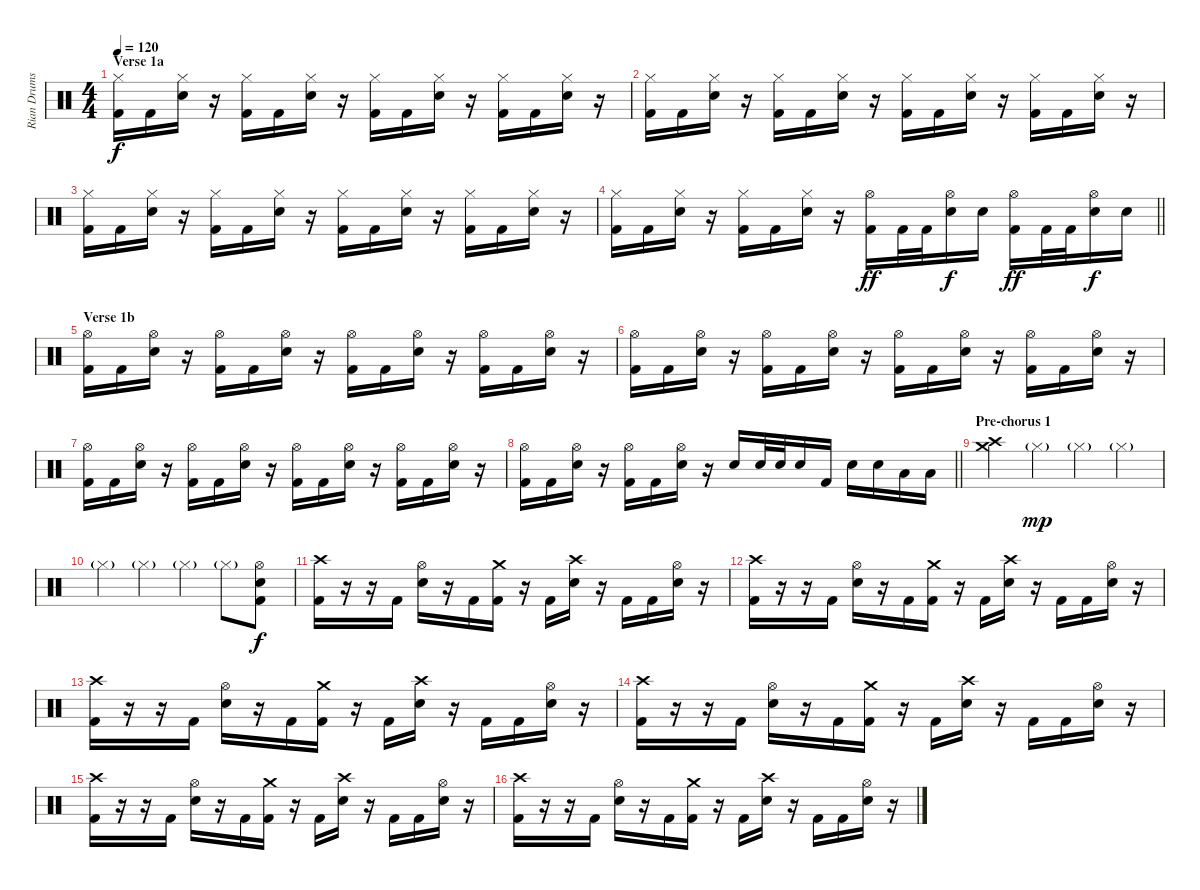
\track ("Rian Drums" "Rian Drums") {instrument percussion}
\staff {score}
\articulation defaults
\ts (4 4)
\section ("" "Verse 1a")
\tempo 120
\clef neutral
\ks c
("Hi-Hat (closed)" "Kick (hit) 2").16{dy f} "Kick (hit) 2".16 ("Hi-Hat (closed)" "Electric Snare (hit)").16 r.16 ("Hi-Hat (closed)" "Kick (hit) 2").16 "Kick (hit) 2".16 ("Hi-Hat (closed)" "Electric Snare (hit)").16 r.16 ("Hi-Hat (closed)" "Kick (hit) 2").16 "Kick (hit) 2".16 ("Hi-Hat (closed)" "Electric Snare (hit)").16 r.16 ("Hi-Hat (closed)" "Kick (hit) 2").16 "Kick (hit) 2".16 ("Hi-Hat (closed)" "Electric Snare (hit)").16 r.16 |
("Hi-Hat (closed)" "Kick (hit) 2").16 "Kick (hit) 2".16 ("Hi-Hat (closed)" "Electric Snare (hit)").16 r.16 ("Hi-Hat (closed)" "Kick (hit) 2").16 "Kick (hit) 2".16 ("Hi-Hat (closed)" "Electric Snare (hit)").16 r.16 ("Hi-Hat (closed)" "Kick (hit) 2").16 "Kick (hit) 2".16 ("Hi-Hat (closed)" "Electric Snare (hit)").16 r.16 ("Hi-Hat (closed)" "Kick (hit) 2").16 "Kick (hit) 2".16 ("Hi-Hat (closed)" "Electric Snare (hit)").16 r.16 |
("Hi-Hat (closed)" "Kick (hit) 2").16 "Kick (hit) 2".16 ("Hi-Hat (closed)" "Electric Snare (hit)").16 r.16 ("Hi-Hat (closed)" "Kick (hit) 2").16 "Kick (hit) 2".16 ("Hi-Hat (closed)" "Electric Snare (hit)").16 r.16 ("Hi-Hat (closed)" "Kick (hit) 2").16 "Kick (hit) 2".16 ("Hi-Hat (closed)" "Electric Snare (hit)").16 r.16 ("Hi-Hat (closed)" "Kick (hit) 2").16 "Kick (hit) 2".16 ("Hi-Hat (closed)" "Electric Snare (hit)").16 r.16 |
\barLineRight lightlight
("Hi-Hat (closed)" "Kick (hit) 2").16 "Kick (hit) 2".16 ("Hi-Hat (closed)" "Electric Snare (hit)").16 r.16 ("Hi-Hat (closed)" "Kick (hit) 2").16 "Kick (hit) 2".16 ("Hi-Hat (closed)" "Electric Snare (hit)").16 r.16 ("Hi-Hat (open)" "Kick (hit) 2").16{dy ff} "Kick (hit) 2".32 "Kick (hit) 2".32 ("Hi-Hat (open)" "Electric Snare (hit)").16{dy f} "Electric Snare (hit)".16 ("Hi-Hat (open)" "Kick (hit) 2").16{dy ff} "Kick (hit) 2".32 "Kick (hit) 2".32 ("Hi-Hat (open)" "Electric Snare (hit)").16{dy f} "Electric Snare (hit)".16 |
\section ("" "Verse 1b")
("Hi-Hat (open)" "Kick (hit) 2").16 "Kick (hit) 2".16 ("Hi-Hat (open)" "Electric Snare (hit)").16 r.16 ("Hi-Hat (open)" "Kick (hit) 2").16 "Kick (hit) 2".16 ("Hi-Hat (open)" "Electric Snare (hit)").16 r.16 ("Hi-Hat (open)" "Kick (hit) 2").16 "Kick (hit) 2".16 ("Hi-Hat (open)" "Electric Snare (hit)").16 r.16 ("Hi-Hat (open)" "Kick (hit) 2").16 "Kick (hit) 2".16 ("Hi-Hat (open)" "Electric Snare (hit)").16 r.16 |
("Hi-Hat (open)" "Kick (hit) 2").16 "Kick (hit) 2".16 ("Hi-Hat (open)" "Electric Snare (hit)").16 r.16 ("Hi-Hat (open)" "Kick (hit) 2").16 "Kick (hit) 2".16 ("Hi-Hat (open)" "Electric Snare (hit)").16 r.16 ("Hi-Hat (open)" "Kick (hit) 2").16 "Kick (hit) 2".16 ("Hi-Hat (open)" "Electric Snare (hit)").16 r.16 ("Hi-Hat (open)" "Kick (hit) 2").16 "Kick (hit) 2".16 ("Hi-Hat (open)" "Electric Snare (hit)").16 r.16 |
("Hi-Hat (open)" "Kick (hit) 2").16 "Kick (hit) 2".16 ("Hi-Hat (open)" "Electric Snare (hit)").16 r.16 ("Hi-Hat (open)" "Kick (hit) 2").16 "Kick (hit) 2".16 ("Hi-Hat (open)" "Electric Snare (hit)").16 r.16 ("Hi-Hat (open)" "Kick (hit) 2").16 "Kick (hit) 2".16 ("Hi-Hat (open)" "Electric Snare (hit)").16 r.16 ("Hi-Hat (open)" "Kick (hit) 2").16 "Kick (hit) 2".16 ("Hi-Hat (open)" "Electric Snare (hit)").16 r.16 |
\barLineRight lightlight
("Hi-Hat (open)" "Kick (hit) 2").16 "Kick (hit) 2".16 ("Hi-Hat (open)" "Electric Snare (hit)").16 r.16 ("Hi-Hat (open)" "Kick (hit) 2").16 "Kick (hit) 2".16 ("Hi-Hat (open)" "Electric Snare (hit)").16 r.16 "Electric Snare (hit)".16 "Electric Snare (hit)".32 "Electric Snare (hit)".32 "Electric Snare (hit)".16 "Kick (hit) 2".16 "Electric Snare (hit)".16 "Electric Snare (hit)".16 "Low Tom (hit)".16 "Low Tom (hit)".16 |
\section ("" "Pre-chorus 1")
("Crash high (hit)" "Crash medium (hit)").4 "Hi-Hat (closed)"{g}.4{dy mp} "Hi-Hat (closed)"{g}.4 "Hi-Hat (closed)"{g}.4 |
"Hi-Hat (closed)"{g}.4 "Hi-Hat (closed)"{g}.4 "Hi-Hat (closed)"{g}.4 "Hi-Hat (closed)"{g}.8 ("Hi-Hat (open)" "Electric Snare (hit)" "Kick (hit) 2").8{dy f} |
("Crash high (hit)" "Kick (hit) 2").16 r.16 r.16 "Kick (hit) 2".16 ("Hi-Hat (open)" "Electric Snare (hit)").16 r.16 "Kick (hit) 2".16 ("Crash medium (hit)" "Kick (hit) 2").16 r.16 "Kick (hit) 2".16 ("Crash high (hit)" "Electric Snare (hit)").16 r.16 "Kick (hit) 2".16 "Kick (hit) 2".16 ("Hi-Hat (open)" "Electric Snare (hit)").16 r.16 |
("Crash high (hit)" "Kick (hit) 2").16 r.16 r.16 "Kick (hit) 2".16 ("Hi-Hat (open)" "Electric Snare (hit)").16 r.16 "Kick (hit) 2".16 ("Crash medium (hit)" "Kick (hit) 2").16 r.16 "Kick (hit) 2".16 ("Crash high (hit)" "Electric Snare (hit)").16 r.16 "Kick (hit) 2".16 "Kick (hit) 2".16 ("Hi-Hat (open)" "Electric Snare (hit)").16 r.16 |
("Crash high (hit)" "Kick (hit) 2").16 r.16 r.16 "Kick (hit) 2".16 ("Hi-Hat (open)" "Electric Snare (hit)").16 r.16 "Kick (hit) 2".16 ("Crash medium (hit)" "Kick (hit) 2").16 r.16 "Kick (hit) 2".16 ("Crash high (hit)" "Electric Snare (hit)").16 r.16 "Kick (hit) 2".16 "Kick (hit) 2".16 ("Hi-Hat (open)" "Electric Snare (hit)").16 r.16 |
("Crash high (hit)" "Kick (hit) 2").16 r.16 r.16 "Kick (hit) 2".16 ("Hi-Hat (open)" "Electric Snare (hit)").16 r.16 "Kick (hit) 2".16 ("Crash medium (hit)" "Kick (hit) 2").16 r.16 "Kick (hit) 2".16 ("Crash high (hit)" "Electric Snare (hit)").16 r.16 "Kick (hit) 2".16 "Kick (hit) 2".16 ("Hi-Hat (open)" "Electric Snare (hit)").16 r.16 |
("Crash high (hit)" "Kick (hit) 2").16 r.16 r.16 "Kick (hit) 2".16 ("Hi-Hat (open)" "Electric Snare (hit)").16 r.16 "Kick (hit) 2".16 ("Crash medium (hit)" "Kick (hit) 2").16 r.16 "Kick (hit) 2".16 ("Crash high (hit)" "Electric Snare (hit)").16 r.16 "Kick (hit) 2".16 "Kick (hit) 2".16 ("Hi-Hat (open)" "Electric Snare (hit)").16 r.16 |
("Crash high (hit)" "Kick (hit) 2").16 r.16 r.16 "Kick (hit) 2".16 ("Hi-Hat (open)" "Electric Snare (hit)").16 r.16 "Kick (hit) 2".16 ("Crash medium (hit)" "Kick (hit) 2").16 r.16 "Kick (hit) 2".16 ("Crash high (hit)" "Electric Snare (hit)").16 r.16 "Kick (hit) 2".16 "Kick (hit) 2".16 ("Hi-Hat (open)" "Electric Snare (hit)").16 r.16
